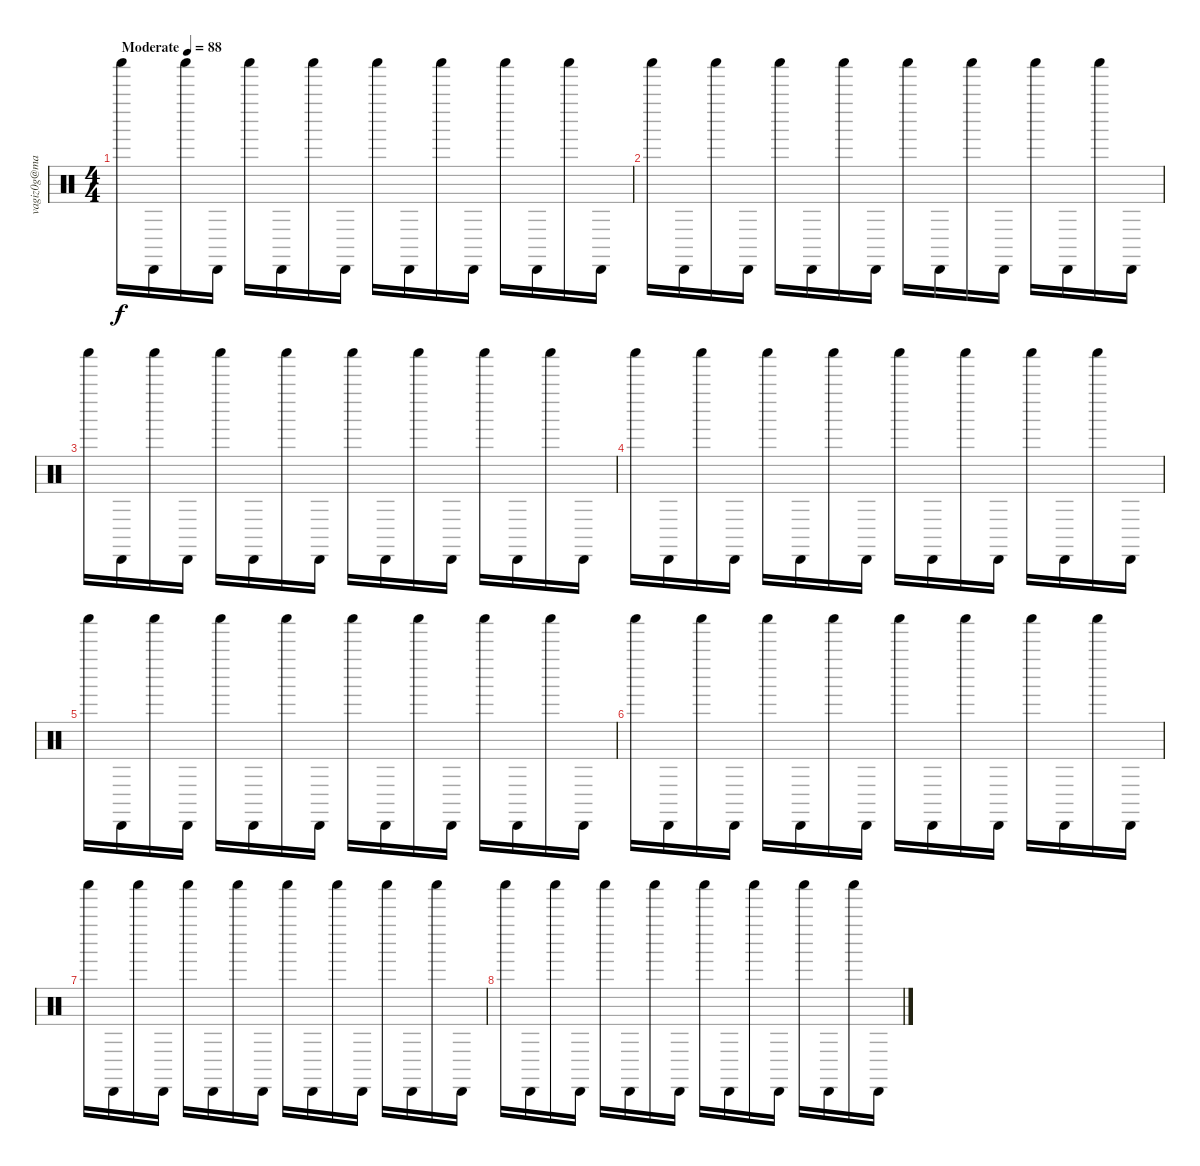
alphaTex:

\track ("vagiz0g@mail.ru" "vagiz0g@ma") {solo instrument percussion}
\staff {score}
\articulation defaults
\ts (4 4)
\tempo (88 "Moderate")
\clef neutral
\ks c "Shaker (hit)".16{dy f} "Cabasa (hit)".16 "Shaker (hit)".16 "Cabasa (hit)".16 "Shaker (hit)".16 "Cabasa (hit)".16 "Shaker (hit)".16 "Cabasa (hit)".16 "Shaker (hit)".16 "Cabasa (hit)".16 "Shaker (hit)".16 "Cabasa (hit)".16 "Shaker (hit)".16 "Cabasa (hit)".16 "Shaker (hit)".16 "Cabasa (hit)".16
|
"Shaker (hit)".16 "Cabasa (hit)".16 "Shaker (hit)".16 "Cabasa (hit)".16 "Shaker (hit)".16 "Cabasa (hit)".16 "Shaker (hit)".16 "Cabasa (hit)".16 "Shaker (hit)".16 "Cabasa (hit)".16 "Shaker (hit)".16 "Cabasa (hit)".16 "Shaker (hit)".16 "Cabasa (hit)".16 "Shaker (hit)".16 "Cabasa (hit)".16 |
"Shaker (hit)".16 "Cabasa (hit)".16 "Shaker (hit)".16 "Cabasa (hit)".16 "Shaker (hit)".16 "Cabasa (hit)".16 "Shaker (hit)".16 "Cabasa (hit)".16 "Shaker (hit)".16 "Cabasa (hit)".16 "Shaker (hit)".16 "Cabasa (hit)".16 "Shaker (hit)".16 "Cabasa (hit)".16 "Shaker (hit)".16 "Cabasa (hit)".16 |
"Shaker (hit)".16 "Cabasa (hit)".16 "Shaker (hit)".16 "Cabasa (hit)".16 "Shaker (hit)".16 "Cabasa (hit)".16 "Shaker (hit)".16 "Cabasa (hit)".16 "Shaker (hit)".16 "Cabasa (hit)".16 "Shaker (hit)".16 "Cabasa (hit)".16 "Shaker (hit)".16 "Cabasa (hit)".16 "Shaker (hit)".16 "Cabasa (hit)".16 |
"Shaker (hit)".16 "Cabasa (hit)".16 "Shaker (hit)".16 "Cabasa (hit)".16 "Shaker (hit)".16 "Cabasa (hit)".16 "Shaker (hit)".16 "Cabasa (hit)".16 "Shaker (hit)".16 "Cabasa (hit)".16 "Shaker (hit)".16 "Cabasa (hit)".16 "Shaker (hit)".16 "Cabasa (hit)".16 "Shaker (hit)".16 "Cabasa (hit)".16 |
"Shaker (hit)".16 "Cabasa (hit)".16 "Shaker (hit)".16 "Cabasa (hit)".16 "Shaker (hit)".16 "Cabasa (hit)".16 "Shaker (hit)".16 "Cabasa (hit)".16 "Shaker (hit)".16 "Cabasa (hit)".16 "Shaker (hit)".16 "Cabasa (hit)".16 "Shaker (hit)".16 "Cabasa (hit)".16 "Shaker (hit)".16 "Cabasa (hit)".16 |
"Shaker (hit)".16 "Cabasa (hit)".16 "Shaker (hit)".16 "Cabasa (hit)".16 "Shaker (hit)".16 "Cabasa (hit)".16 "Shaker (hit)".16 "Cabasa (hit)".16 "Shaker (hit)".16 "Cabasa (hit)".16 "Shaker (hit)".16 "Cabasa (hit)".16 "Shaker (hit)".16 "Cabasa (hit)".16 "Shaker (hit)".16 "Cabasa (hit)".16 |
"Shaker (hit)".16 "Cabasa (hit)".16 "Shaker (hit)".16 "Cabasa (hit)".16 "Shaker (hit)".16 "Cabasa (hit)".16 "Shaker (hit)".16 "Cabasa (hit)".16 "Shaker (hit)".16 "Cabasa (hit)".16 "Shaker (hit)".16 "Cabasa (hit)".16 "Shaker (hit)".16 "Cabasa (hit)".16 "Shaker (hit)".16 "Cabasa (hit)".16
